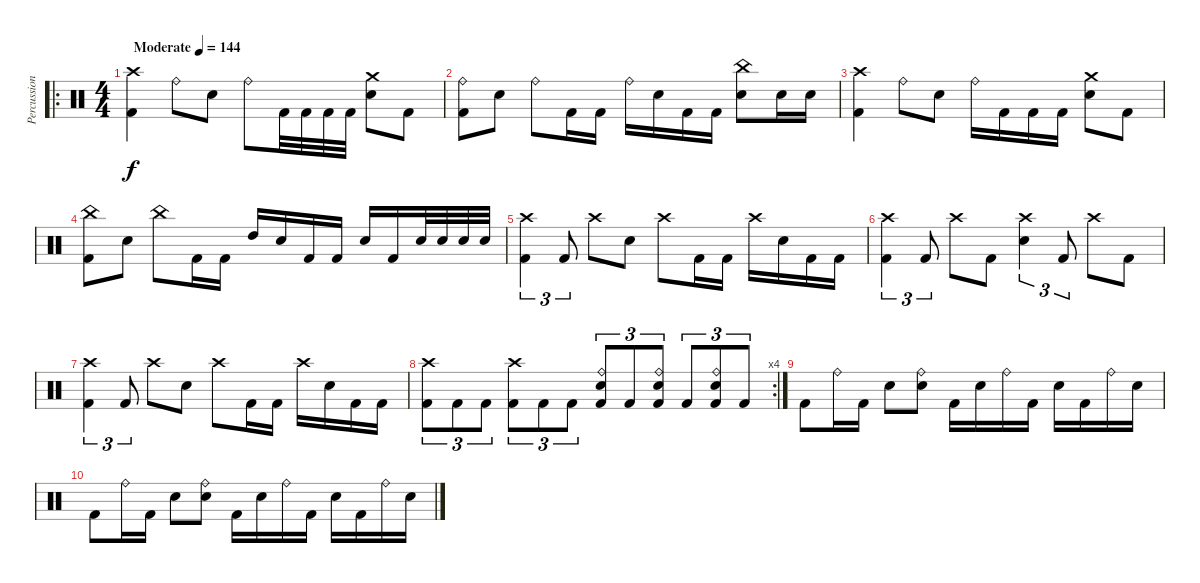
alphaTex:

\track ("Percussion" "Percussion") {instrument percussion}
\staff {score}
\articulation defaults
\ro
\ts (4 4)
\tempo (144 "Moderate")
\clef neutral
\ks c
("Crash high (hit)" "Kick (hit) 2").4{dy f} "Ride (bell)".8 "Snare (hit) 2".8 "Ride (bell)".8 "Kick (hit) 2".32 "Kick (hit) 2".32 "Kick (hit) 2".32 "Kick (hit) 2".32 ("Crash medium (hit)" "Snare (hit) 2").8 "Kick (hit) 2".8 |
("Ride (bell)" "Kick (hit) 2").8 "Snare (hit) 2".8 "Ride (bell)".8 "Kick (hit) 2".16 "Kick (hit) 2".16 "Ride (bell)".16 "Snare (hit) 2".16 "Kick (hit) 2".16 "Kick (hit) 2".16 ("China (hit)" "Snare (hit) 2").8 "Snare (hit) 2".16 "Snare (hit) 2".16 |
("Crash high (hit)" "Kick (hit) 2").4 "Ride (bell)".8 "Snare (hit) 2".8 "Ride (bell)".16 "Kick (hit) 2".16 "Kick (hit) 2".16 "Kick (hit) 2".16 ("Crash medium (hit)" "Snare (hit) 2").8 "Kick (hit) 2".8 |
("China (hit)" "Kick (hit) 2").8 "Snare (hit) 2".8 "China (hit)".8 "Kick (hit) 2".16 "Kick (hit) 2".16 "High Tom (hit)".16 "Snare (hit) 2".16 "Kick (hit) 2".16 "Kick (hit) 2".16 "Snare (hit) 2".16 "Kick (hit) 2".16 "Snare (hit) 2".32 "Snare (hit) 2".32 "Snare (hit) 2".32 "Snare (hit) 2".32 |
("Crash high (hit)" "Kick (hit) 2").4{tu (3 2)} "Kick (hit) 2".8{tu (3 2)} "Crash high (hit)".8 "Snare (hit) 2".8 "Crash high (hit)".8 "Kick (hit) 2".16 "Kick (hit) 2".16 "Crash high (hit)".16 "Snare (hit) 2".16 "Kick (hit) 2".16 "Kick (hit) 2".16 |
("Crash high (hit)" "Kick (hit) 2").4{tu (3 2)} "Kick (hit) 2".8{tu (3 2)} "Crash high (hit)".8 "Kick (hit) 2".8 ("Crash high (hit)" "Snare (hit) 2").4{tu (3 2)} "Kick (hit) 2".8{tu (3 2)} "Crash high (hit)".8 "Kick (hit) 2".8 |
("Crash high (hit)" "Kick (hit) 2").4{tu (3 2)} "Kick (hit) 2".8{tu (3 2)} "Crash high (hit)".8 "Snare (hit) 2".8 "Crash high (hit)".8 "Kick (hit) 2".16 "Kick (hit) 2".16 "Crash high (hit)".16 "Snare (hit) 2".16 "Kick (hit) 2".16 "Kick (hit) 2".16 |
\rc 4
("Crash high (hit)" "Kick (hit) 2").8{tu (3 2)} "Kick (hit) 2".8{tu (3 2)} "Kick (hit) 2".8{tu (3 2)} ("Crash high (hit)" "Kick (hit) 2").8{tu (3 2)} "Kick (hit) 2".8{tu (3 2)} "Kick (hit) 2".8{tu (3 2)} ("Ride (bell)" "Snare (hit) 2" "Kick (hit) 2").8{tu (3 2)} "Kick (hit) 2".8{tu (3 2)} ("Ride (bell)" "Snare (hit) 2" "Kick (hit) 2").8{tu (3 2)} "Kick (hit) 2".8{tu (3 2)} ("Ride (bell)" "Snare (hit) 2" "Kick (hit) 2").8{tu (3 2)} "Kick (hit) 2".8{tu (3 2)} |
"Kick (hit) 2".8 "Ride (bell)".16 "Kick (hit) 2".16 "Snare (hit) 2".8 ("Ride (bell)" "Snare (hit) 2").8 "Kick (hit) 2".16 "Snare (hit) 2".16 "Ride (bell)".16 "Kick (hit) 2".16 "Snare (hit) 2".16 "Kick (hit) 2".16 "Ride (bell)".16 "Snare (hit) 2".16 |
"Kick (hit) 2".8 "Ride (bell)".16 "Kick (hit) 2".16 "Snare (hit) 2".8 ("Ride (bell)" "Snare (hit) 2").8 "Kick (hit) 2".16 "Snare (hit) 2".16 "Ride (bell)".16 "Kick (hit) 2".16 "Snare (hit) 2".16 "Kick (hit) 2".16 "Ride (bell)".16 "Snare (hit) 2".16
